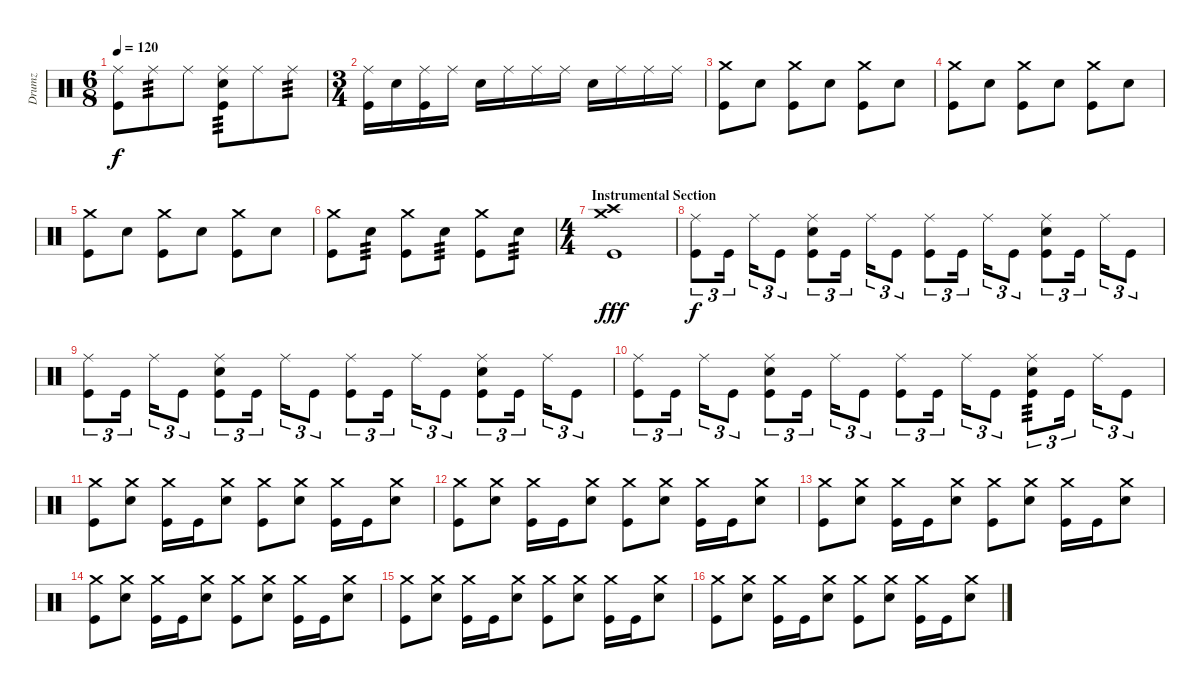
\track ("Drumz" "Drumz") {instrument percussion}
\staff {score}
\articulation defaults
\ts (6 8)
\tempo 120
\clef neutral
\ks c
("Ride (middle)" "Kick (hit)").8{dy f} "Ride (middle)".8{tp 3} "Ride (middle)".8 ("Ride (middle)" "Electric Snare (hit)" "Kick (hit)").8{tp 3} "Ride (middle)".8 "Ride (middle)".8{tp 3} |
\ts (3 4)
("Ride (middle)" "Kick (hit)").16 "Electric Snare (hit)".16 ("Ride (middle)" "Kick (hit)").16 "Ride (middle)".16 "Electric Snare (hit)".16 "Ride (middle)".16 "Ride (middle)".16 "Ride (middle)".16 "Electric Snare (hit)".16 "Ride (middle)".16 "Ride (middle)".16 "Ride (middle)".16 |
("Crash medium (hit)" "Kick (hit)").8 "Electric Snare (hit)".8 ("Crash medium (hit)" "Kick (hit)").8 "Electric Snare (hit)".8 ("Crash medium (hit)" "Kick (hit)").8 "Electric Snare (hit)".8 |
("Crash medium (hit)" "Kick (hit)").8 "Electric Snare (hit)".8 ("Crash medium (hit)" "Kick (hit)").8 "Electric Snare (hit)".8 ("Crash medium (hit)" "Kick (hit)").8 "Electric Snare (hit)".8 |
("Crash medium (hit)" "Kick (hit)").8 "Electric Snare (hit)".8 ("Crash medium (hit)" "Kick (hit)").8 "Electric Snare (hit)".8 ("Crash medium (hit)" "Kick (hit)").8 "Electric Snare (hit)".8 |
("Crash medium (hit)" "Kick (hit)").8 "Electric Snare (hit)".8{tp 3} ("Crash medium (hit)" "Kick (hit)").8 "Electric Snare (hit)".8{tp 3} ("Crash medium (hit)" "Kick (hit)").8 "Electric Snare (hit)".8{tp 3} |
\ts (4 4)
\section ("" "Instrumental Section")
("Crash medium (hit)" "Crash high (hit)" "Kick (hit)").1{dy fff} |
("Ride (middle)" "Kick (hit)").8{tu (3 2) dy f} "Kick (hit)".16{tu (3 2)} "Ride (middle)".16{tu (3 2)} "Kick (hit)".8{tu (3 2)} ("Ride (middle)" "Electric Snare (hit)" "Kick (hit)").8{tu (3 2)} "Kick (hit)".16{tu (3 2)} "Ride (middle)".16{tu (3 2)} "Kick (hit)".8{tu (3 2)} ("Ride (middle)" "Kick (hit)").8{tu (3 2)} "Kick (hit)".16{tu (3 2)} "Ride (middle)".16{tu (3 2)} "Kick (hit)".8{tu (3 2)} ("Ride (middle)" "Electric Snare (hit)" "Kick (hit)").8{tu (3 2)} "Kick (hit)".16{tu (3 2)} "Ride (middle)".16{tu (3 2)} "Kick (hit)".8{tu (3 2)} |
("Ride (middle)" "Kick (hit)").8{tu (3 2)} "Kick (hit)".16{tu (3 2)} "Ride (middle)".16{tu (3 2)} "Kick (hit)".8{tu (3 2)} ("Ride (middle)" "Electric Snare (hit)" "Kick (hit)").8{tu (3 2)} "Kick (hit)".16{tu (3 2)} "Ride (middle)".16{tu (3 2)} "Kick (hit)".8{tu (3 2)} ("Ride (middle)" "Kick (hit)").8{tu (3 2)} "Kick (hit)".16{tu (3 2)} "Ride (middle)".16{tu (3 2)} "Kick (hit)".8{tu (3 2)} ("Ride (middle)" "Electric Snare (hit)" "Kick (hit)").8{tu (3 2)} "Kick (hit)".16{tu (3 2)} "Ride (middle)".16{tu (3 2)} "Kick (hit)".8{tu (3 2)} |
("Ride (middle)" "Kick (hit)").8{tu (3 2)} "Kick (hit)".16{tu (3 2)} "Ride (middle)".16{tu (3 2)} "Kick (hit)".8{tu (3 2)} ("Ride (middle)" "Electric Snare (hit)" "Kick (hit)").8{tu (3 2)} "Kick (hit)".16{tu (3 2)} "Ride (middle)".16{tu (3 2)} "Kick (hit)".8{tu (3 2)} ("Ride (middle)" "Kick (hit)").8{tu (3 2)} "Kick (hit)".16{tu (3 2)} "Ride (middle)".16{tu (3 2)} "Kick (hit)".8{tu (3 2)} ("Ride (middle)" "Electric Snare (hit)" "Kick (hit)").8{tu (3 2) tp 3} "Kick (hit)".16{tu (3 2)} "Ride (middle)".16{tu (3 2)} "Kick (hit)".8{tu (3 2)} |
("Crash medium (hit)" "Kick (hit)").8 ("Crash medium (hit)" "Electric Snare (hit)").8 ("Crash medium (hit)" "Kick (hit)").16 "Kick (hit)".16 ("Crash medium (hit)" "Electric Snare (hit)").8 ("Crash medium (hit)" "Kick (hit)").8 ("Crash medium (hit)" "Electric Snare (hit)").8 ("Crash medium (hit)" "Kick (hit)").16 "Kick (hit)".16 ("Crash medium (hit)" "Electric Snare (hit)").8 |
("Crash medium (hit)" "Kick (hit)").8 ("Crash medium (hit)" "Electric Snare (hit)").8 ("Crash medium (hit)" "Kick (hit)").16 "Kick (hit)".16 ("Crash medium (hit)" "Electric Snare (hit)").8 ("Crash medium (hit)" "Kick (hit)").8 ("Crash medium (hit)" "Electric Snare (hit)").8 ("Crash medium (hit)" "Kick (hit)").16 "Kick (hit)".16 ("Crash medium (hit)" "Electric Snare (hit)").8 |
("Crash medium (hit)" "Kick (hit)").8 ("Crash medium (hit)" "Electric Snare (hit)").8 ("Crash medium (hit)" "Kick (hit)").16 "Kick (hit)".16 ("Crash medium (hit)" "Electric Snare (hit)").8 ("Crash medium (hit)" "Kick (hit)").8 ("Crash medium (hit)" "Electric Snare (hit)").8 ("Crash medium (hit)" "Kick (hit)").16 "Kick (hit)".16 ("Crash medium (hit)" "Electric Snare (hit)").8 |
("Crash medium (hit)" "Kick (hit)").8 ("Crash medium (hit)" "Electric Snare (hit)").8 ("Crash medium (hit)" "Kick (hit)").16 "Kick (hit)".16 ("Crash medium (hit)" "Electric Snare (hit)").8 ("Crash medium (hit)" "Kick (hit)").8 ("Crash medium (hit)" "Electric Snare (hit)").8 ("Crash medium (hit)" "Kick (hit)").16 "Kick (hit)".16 ("Crash medium (hit)" "Electric Snare (hit)").8 |
("Crash medium (hit)" "Kick (hit)").8 ("Crash medium (hit)" "Electric Snare (hit)").8 ("Crash medium (hit)" "Kick (hit)").16 "Kick (hit)".16 ("Crash medium (hit)" "Electric Snare (hit)").8 ("Crash medium (hit)" "Kick (hit)").8 ("Crash medium (hit)" "Electric Snare (hit)").8 ("Crash medium (hit)" "Kick (hit)").16 "Kick (hit)".16 ("Crash medium (hit)" "Electric Snare (hit)").8 |
("Crash medium (hit)" "Kick (hit)").8 ("Crash medium (hit)" "Electric Snare (hit)").8 ("Crash medium (hit)" "Kick (hit)").16 "Kick (hit)".16 ("Crash medium (hit)" "Electric Snare (hit)").8 ("Crash medium (hit)" "Kick (hit)").8 ("Crash medium (hit)" "Electric Snare (hit)").8 ("Crash medium (hit)" "Kick (hit)").16 "Kick (hit)".16 ("Crash medium (hit)" "Electric Snare (hit)").8
